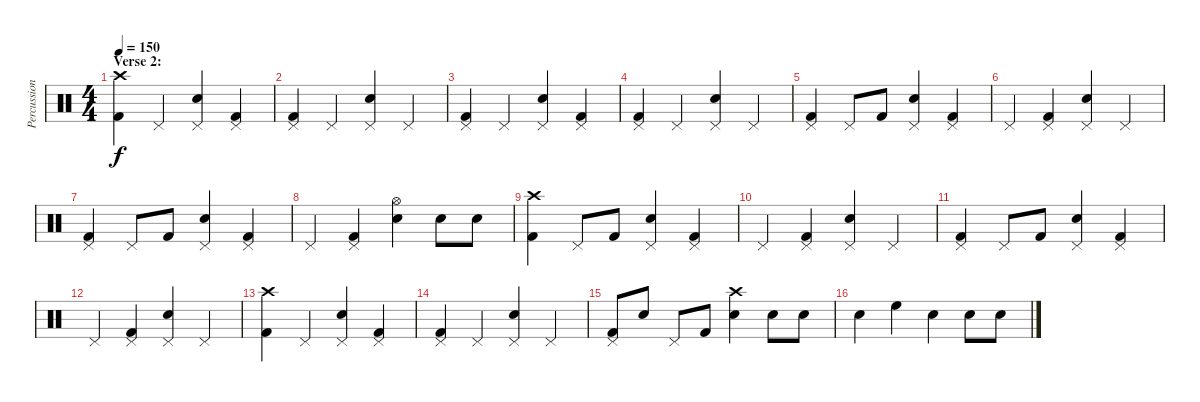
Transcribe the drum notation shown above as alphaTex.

\track ("Percussion" "Percussion") {instrument percussion}
\staff {score}
\articulation defaults
\ts (4 4)
\section ("" "Verse 2:")
\tempo 150
\clef neutral
\ks c
("Crash high (hit)" "Kick (hit) 2").4{dy f} "Pedal Hi-Hat (hit)".4 ("Pedal Hi-Hat (hit)" "Electric Snare (hit)").4 ("Pedal Hi-Hat (hit)" "Kick (hit) 2").4 |
("Pedal Hi-Hat (hit)" "Kick (hit) 2").4 "Pedal Hi-Hat (hit)".4 ("Pedal Hi-Hat (hit)" "Electric Snare (hit)").4 "Pedal Hi-Hat (hit)".4 |
("Pedal Hi-Hat (hit)" "Kick (hit) 2").4 "Pedal Hi-Hat (hit)".4 ("Pedal Hi-Hat (hit)" "Electric Snare (hit)").4 ("Pedal Hi-Hat (hit)" "Kick (hit) 2").4 |
("Pedal Hi-Hat (hit)" "Kick (hit) 2").4 "Pedal Hi-Hat (hit)".4 ("Pedal Hi-Hat (hit)" "Electric Snare (hit)").4 "Pedal Hi-Hat (hit)".4 |
("Pedal Hi-Hat (hit)" "Kick (hit) 2").4 "Pedal Hi-Hat (hit)".8 "Kick (hit) 2".8 ("Pedal Hi-Hat (hit)" "Electric Snare (hit)").4 ("Pedal Hi-Hat (hit)" "Kick (hit) 2").4 |
"Pedal Hi-Hat (hit)".4 ("Pedal Hi-Hat (hit)" "Kick (hit) 2").4 ("Pedal Hi-Hat (hit)" "Electric Snare (hit)").4 "Pedal Hi-Hat (hit)".4 |
("Pedal Hi-Hat (hit)" "Kick (hit) 2").4 "Pedal Hi-Hat (hit)".8 "Kick (hit) 2".8 ("Pedal Hi-Hat (hit)" "Electric Snare (hit)").4 ("Pedal Hi-Hat (hit)" "Kick (hit) 2").4 |
"Pedal Hi-Hat (hit)".4 ("Pedal Hi-Hat (hit)" "Kick (hit) 2").4 ("Hi-Hat (open)" "Electric Snare (hit)").4 "Electric Snare (hit)".8 "Electric Snare (hit)".8 |
("Crash high (hit)" "Kick (hit) 2").4 "Pedal Hi-Hat (hit)".8 "Kick (hit) 2".8 ("Pedal Hi-Hat (hit)" "Electric Snare (hit)").4 ("Pedal Hi-Hat (hit)" "Kick (hit) 2").4 |
"Pedal Hi-Hat (hit)".4 ("Pedal Hi-Hat (hit)" "Kick (hit) 2").4 ("Pedal Hi-Hat (hit)" "Electric Snare (hit)").4 "Pedal Hi-Hat (hit)".4 |
("Pedal Hi-Hat (hit)" "Kick (hit) 2").4 "Pedal Hi-Hat (hit)".8 "Kick (hit) 2".8 ("Pedal Hi-Hat (hit)" "Electric Snare (hit)").4 ("Pedal Hi-Hat (hit)" "Kick (hit) 2").4 |
"Pedal Hi-Hat (hit)".4 ("Pedal Hi-Hat (hit)" "Kick (hit) 2").4 ("Pedal Hi-Hat (hit)" "Electric Snare (hit)").4 "Pedal Hi-Hat (hit)".4 |
("Crash high (hit)" "Kick (hit) 2").4 "Pedal Hi-Hat (hit)".4 ("Pedal Hi-Hat (hit)" "Electric Snare (hit)").4 ("Pedal Hi-Hat (hit)" "Kick (hit) 2").4 |
("Pedal Hi-Hat (hit)" "Kick (hit) 2").4 "Pedal Hi-Hat (hit)".4 ("Pedal Hi-Hat (hit)" "Electric Snare (hit)").4 "Pedal Hi-Hat (hit)".4 |
("Pedal Hi-Hat (hit)" "Kick (hit) 2").8 "Electric Snare (hit)".8 "Pedal Hi-Hat (hit)".8 "Kick (hit) 2".8 ("Crash high (hit)" "Electric Snare (hit)").4 "Electric Snare (hit)".8 "Electric Snare (hit)".8 |
"Electric Snare (hit)".4 "High Floor Tom (hit)".4 "Electric Snare (hit)".4 "Electric Snare (hit)".8 "Electric Snare (hit)".8
